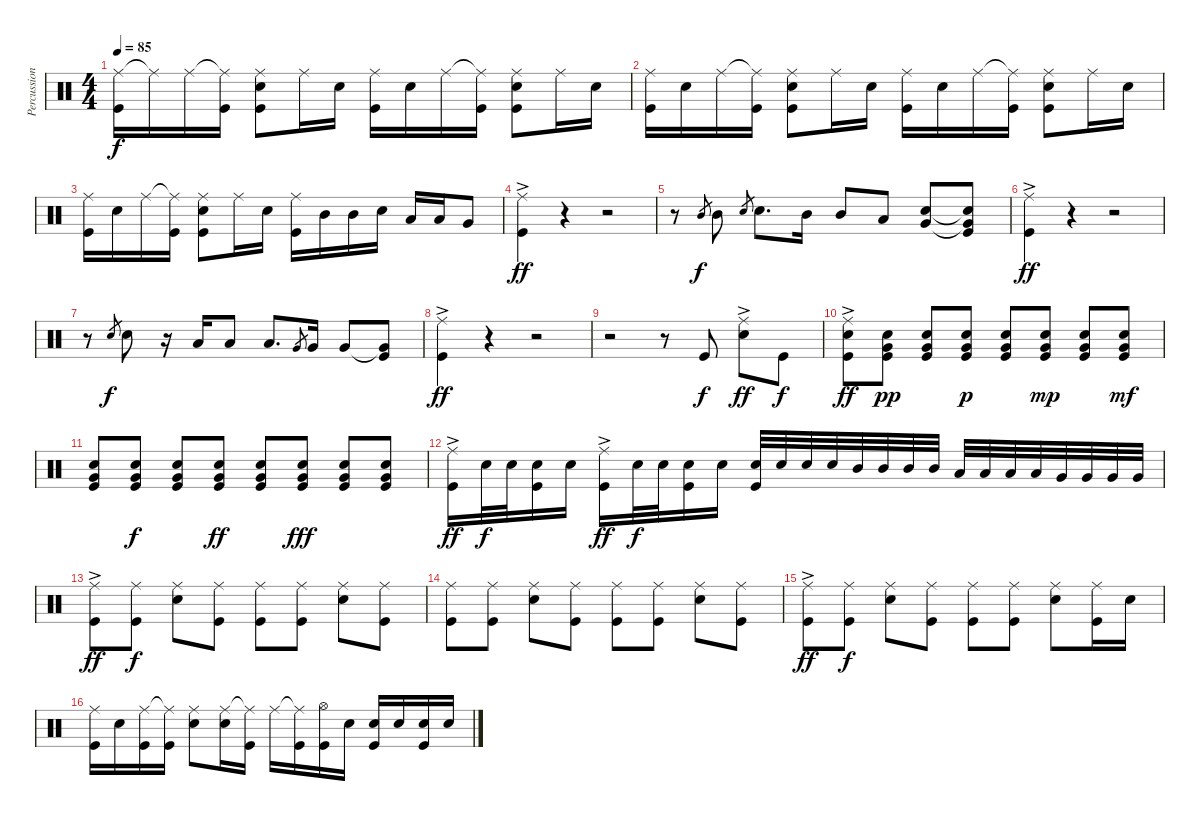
\track ("Percussion" "Percussion") {instrument percussion}
\staff {score}
\articulation defaults
\ts (4 4)
\tempo 85
\clef neutral
\ks c
("Ride (middle)" "Kick (hit)").16{dy f} "Ride (middle)"{t}.16 "Ride (middle)".16 ("Ride (middle)"{t} "Kick (hit)").16 ("Ride (middle)" "Snare (hit) 2" "Kick (hit)").8 "Ride (middle)".16 "Snare (hit) 2".16 ("Ride (middle)" "Kick (hit)").16 "Snare (hit) 2".16 "Ride (middle)".16 ("Ride (middle)"{t} "Kick (hit)").16 ("Ride (middle)" "Snare (hit) 2" "Kick (hit)").8 "Ride (middle)".16 "Snare (hit) 2".16 |
("Ride (middle)" "Kick (hit)").16 "Snare (hit) 2".16 "Ride (middle)".16 ("Ride (middle)"{t} "Kick (hit)").16 ("Ride (middle)" "Snare (hit) 2" "Kick (hit)").8 "Ride (middle)".16 "Snare (hit) 2".16 ("Ride (middle)" "Kick (hit)").16 "Snare (hit) 2".16 "Ride (middle)".16 ("Ride (middle)"{t} "Kick (hit)").16 ("Ride (middle)" "Snare (hit) 2" "Kick (hit)").8 "Ride (middle)".16 "Snare (hit) 2".16 |
("Ride (middle)" "Kick (hit)").16 "Snare (hit) 2".16 "Ride (middle)".16 ("Ride (middle)"{t} "Kick (hit)").16 ("Ride (middle)" "Snare (hit) 2" "Kick (hit)").8 "Ride (middle)".16 "Snare (hit) 2".16 ("Ride (middle)" "Kick (hit)").16 "Mid Tom (hit)".16 "Mid Tom (hit)".16 "Snare (hit) 2".16 "Low Tom (hit)".16 "Low Tom (hit)".16 "Very Low Tom (hit)".8 |
("Ride (middle)"{ac} "Kick (hit)").4{dy ff} r.4 r.2 |
r.8 "Mid Tom (hit)".8{gr dy f} "Mid Tom (hit)".8 "Snare (hit) 2".8{gr} "Snare (hit) 2".8{d} "Mid Tom (hit)".16 "Mid Tom (hit)".8 "Low Tom (hit)".8 ("Snare (hit) 2" "Very Low Tom (hit)").8 ("Snare (hit) 2"{t} "Very Low Tom (hit)"{t} "Kick (hit)").8 |
("Ride (middle)"{ac} "Kick (hit)").4{dy ff} r.4 r.2 |
r.8 "Snare (hit) 2".8{gr dy f} "Snare (hit) 2".8 r.16 "Low Tom (hit)".16 "Low Tom (hit)".8 "Low Tom (hit)".8{d} "Very Low Tom (hit)".8{gr} "Very Low Tom (hit)".16 "Very Low Tom (hit)".8 ("Very Low Tom (hit)"{t} "Kick (hit)").8 |
("Ride (middle)"{ac} "Kick (hit)").4{dy ff} r.4 r.2 |
r.2 r.8 "Kick (hit)".8{dy f} ("Ride (middle)"{ac} "Snare (hit) 2").8{dy ff} "Kick (hit)".8{dy f} |
("Ride (middle)"{ac} "Snare (hit) 2" "Kick (hit)").8{dy ff} ("Snare (hit) 2" "Very Low Tom (hit)" "Kick (hit)").8{dy pp} ("Snare (hit) 2" "Very Low Tom (hit)" "Kick (hit)").8 ("Snare (hit) 2" "Very Low Tom (hit)" "Kick (hit)").8{dy p} ("Snare (hit) 2" "Very Low Tom (hit)" "Kick (hit)").8 ("Snare (hit) 2" "Very Low Tom (hit)" "Kick (hit)").8{dy mp} ("Snare (hit) 2" "Very Low Tom (hit)" "Kick (hit)").8 ("Snare (hit) 2" "Very Low Tom (hit)" "Kick (hit)").8{dy mf} |
("Snare (hit) 2" "Very Low Tom (hit)" "Kick (hit)").8 ("Snare (hit) 2" "Very Low Tom (hit)" "Kick (hit)").8{dy f} ("Snare (hit) 2" "Very Low Tom (hit)" "Kick (hit)").8 ("Snare (hit) 2" "Very Low Tom (hit)" "Kick (hit)").8{dy ff} ("Snare (hit) 2" "Very Low Tom (hit)" "Kick (hit)").8 ("Snare (hit) 2" "Very Low Tom (hit)" "Kick (hit)").8{dy fff} ("Snare (hit) 2" "Very Low Tom (hit)" "Kick (hit)").8 ("Snare (hit) 2" "Very Low Tom (hit)" "Kick (hit)").8 |
("Ride (middle)"{ac} "Kick (hit)").16{dy ff} "Snare (hit) 2".32{dy f} "Snare (hit) 2".32 ("Snare (hit) 2" "Kick (hit)").16 "Snare (hit) 2".16 ("Ride (middle)"{ac} "Kick (hit)").16{dy ff} "Snare (hit) 2".32{dy f} "Snare (hit) 2".32 ("Snare (hit) 2" "Kick (hit)").16 "Snare (hit) 2".16 ("Snare (hit) 2" "Kick (hit)").32 "Snare (hit) 2".32 "Snare (hit) 2".32 "Snare (hit) 2".32 "Mid Tom (hit)".32 "Mid Tom (hit)".32 "Mid Tom (hit)".32 "Mid Tom (hit)".32 "Low Tom (hit)".32 "Low Tom (hit)".32 "Low Tom (hit)".32 "Low Tom (hit)".32 "Very Low Tom (hit)".32 "Very Low Tom (hit)".32 "Very Low Tom (hit)".32 "Very Low Tom (hit)".32 |
("Ride (middle)"{ac} "Kick (hit)").8{dy ff} ("Ride (middle)" "Kick (hit)").8{dy f} ("Ride (middle)" "Snare (hit) 2").8 ("Ride (middle)" "Kick (hit)").8 ("Ride (middle)" "Kick (hit)").8 ("Ride (middle)" "Kick (hit)").8 ("Ride (middle)" "Snare (hit) 2").8 ("Ride (middle)" "Kick (hit)").8 |
("Ride (middle)" "Kick (hit)").8 ("Ride (middle)" "Kick (hit)").8 ("Ride (middle)" "Snare (hit) 2").8 ("Ride (middle)" "Kick (hit)").8 ("Ride (middle)" "Kick (hit)").8 ("Ride (middle)" "Kick (hit)").8 ("Ride (middle)" "Snare (hit) 2").8 ("Ride (middle)" "Kick (hit)").8 |
("Ride (middle)"{ac} "Kick (hit)").8{dy ff} ("Ride (middle)" "Kick (hit)").8{dy f} ("Ride (middle)" "Snare (hit) 2").8 ("Ride (middle)" "Kick (hit)").8 ("Ride (middle)" "Kick (hit)").8 ("Ride (middle)" "Kick (hit)").8 ("Ride (middle)" "Snare (hit) 2").8 ("Ride (middle)" "Kick (hit)").16 "Snare (hit) 2".16 |
("Ride (middle)" "Kick (hit)").16 "Snare (hit) 2".16 ("Ride (middle)" "Kick (hit)").16 ("Ride (middle)"{t} "Kick (hit)").16 ("Ride (middle)" "Snare (hit) 2").8 ("Ride (middle)" "Snare (hit) 2").16 ("Ride (middle)"{t} "Kick (hit)").16 "Ride (middle)".16 ("Ride (middle)"{t} "Kick (hit)").16 ("Hi-Hat (open)" "Kick (hit)").16 "Snare (hit) 2".16 ("Snare (hit) 2" "Kick (hit)").16 "Snare (hit) 2".16 ("Snare (hit) 2" "Kick (hit)").16 "Snare (hit) 2".16
